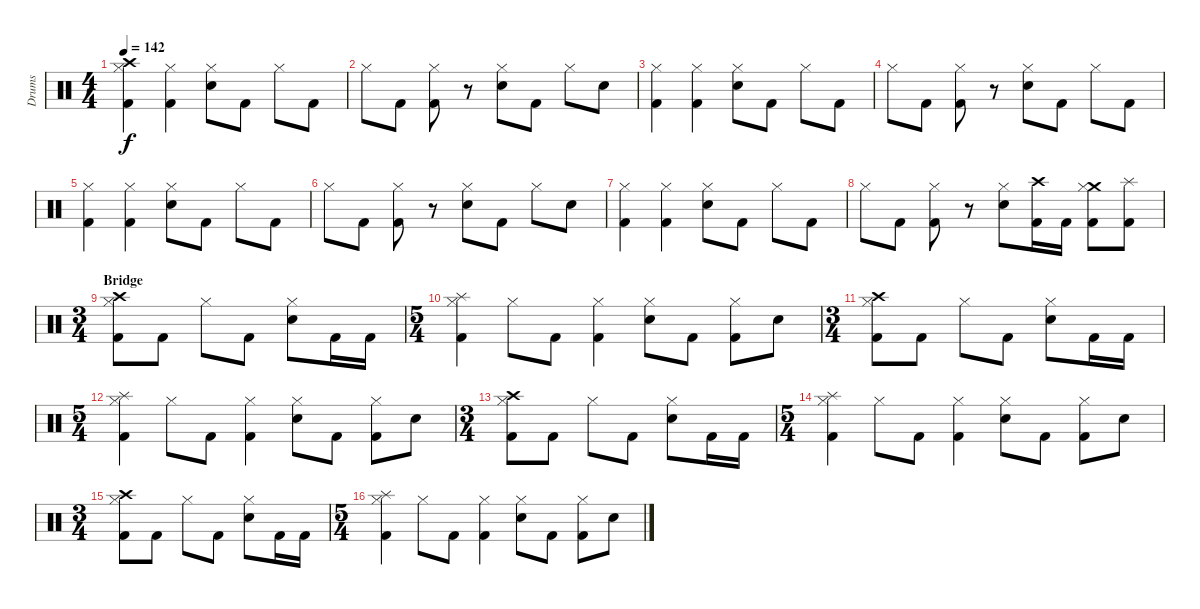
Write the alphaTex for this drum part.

\track ("Drums" "Drums") {instrument percussion}
\staff {score}
\articulation defaults
\ts (4 4)
\tempo 142
\clef neutral
\ks c
("Crash high (hit)" "Hi-Hat (closed)" "Kick (hit) 2").4{dy f} ("Hi-Hat (closed)" "Kick (hit) 2").4 ("Hi-Hat (closed)" "Electric Snare (hit)").8 "Kick (hit) 2".8 "Hi-Hat (closed)".8 "Kick (hit) 2".8 |
"Hi-Hat (closed)".8 "Kick (hit) 2".8 ("Hi-Hat (closed)" "Kick (hit) 2").8 r.8 ("Hi-Hat (closed)" "Electric Snare (hit)").8 "Kick (hit) 2".8 "Hi-Hat (closed)".8 "Electric Snare (hit)".8 |
("Hi-Hat (closed)" "Kick (hit) 2").4 ("Hi-Hat (closed)" "Kick (hit) 2").4 ("Hi-Hat (closed)" "Electric Snare (hit)").8 "Kick (hit) 2".8 "Hi-Hat (closed)".8 "Kick (hit) 2".8 |
"Hi-Hat (closed)".8 "Kick (hit) 2".8 ("Hi-Hat (closed)" "Kick (hit) 2").8 r.8 ("Hi-Hat (closed)" "Electric Snare (hit)").8 "Kick (hit) 2".8 "Hi-Hat (closed)".8 "Kick (hit) 2".8 |
("Hi-Hat (closed)" "Kick (hit) 2").4 ("Hi-Hat (closed)" "Kick (hit) 2").4 ("Hi-Hat (closed)" "Electric Snare (hit)").8 "Kick (hit) 2".8 "Hi-Hat (closed)".8 "Kick (hit) 2".8 |
"Hi-Hat (closed)".8 "Kick (hit) 2".8 ("Hi-Hat (closed)" "Kick (hit) 2").8 r.8 ("Hi-Hat (closed)" "Electric Snare (hit)").8 "Kick (hit) 2".8 "Hi-Hat (closed)".8 "Electric Snare (hit)".8 |
("Hi-Hat (closed)" "Kick (hit) 2").4 ("Hi-Hat (closed)" "Kick (hit) 2").4 ("Hi-Hat (closed)" "Electric Snare (hit)").8 "Kick (hit) 2".8 "Hi-Hat (closed)".8 "Kick (hit) 2".8 |
"Hi-Hat (closed)".8 "Kick (hit) 2".8 ("Hi-Hat (closed)" "Kick (hit) 2").8 r.8 ("Hi-Hat (closed)" "Electric Snare (hit)").8 ("Crash high (hit)" "Kick (hit) 2").16 "Kick (hit) 2".16 ("Crash medium (hit)" "Hi-Hat (closed)" "Kick (hit) 2").8 ("Splash (hit)" "Kick (hit) 2").8 |
\ts (3 4)
\section ("" "Bridge")
("Crash high (hit)" "Hi-Hat (closed)" "Kick (hit) 2").8 "Kick (hit) 2".8 "Hi-Hat (closed)".8 "Kick (hit) 2".8 ("Hi-Hat (closed)" "Electric Snare (hit)").8 "Kick (hit) 2".16 "Kick (hit) 2".16 |
\ts (5 4)
("Splash (hit)" "Hi-Hat (closed)" "Kick (hit) 2").4 "Hi-Hat (closed)".8 "Kick (hit) 2".8 ("Hi-Hat (closed)" "Kick (hit) 2").4 ("Hi-Hat (closed)" "Electric Snare (hit)").8 "Kick (hit) 2".8 ("Hi-Hat (closed)" "Kick (hit) 2").8 "Electric Snare (hit)".8 |
\ts (3 4)
("Crash high (hit)" "Hi-Hat (closed)" "Kick (hit) 2").8 "Kick (hit) 2".8 "Hi-Hat (closed)".8 "Kick (hit) 2".8 ("Hi-Hat (closed)" "Electric Snare (hit)").8 "Kick (hit) 2".16 "Kick (hit) 2".16 |
\ts (5 4)
("Splash (hit)" "Hi-Hat (closed)" "Kick (hit) 2").4 "Hi-Hat (closed)".8 "Kick (hit) 2".8 ("Hi-Hat (closed)" "Kick (hit) 2").4 ("Hi-Hat (closed)" "Electric Snare (hit)").8 "Kick (hit) 2".8 ("Hi-Hat (closed)" "Kick (hit) 2").8 "Electric Snare (hit)".8 |
\ts (3 4)
("Crash high (hit)" "Hi-Hat (closed)" "Kick (hit) 2").8 "Kick (hit) 2".8 "Hi-Hat (closed)".8 "Kick (hit) 2".8 ("Hi-Hat (closed)" "Electric Snare (hit)").8 "Kick (hit) 2".16 "Kick (hit) 2".16 |
\ts (5 4)
("Splash (hit)" "Hi-Hat (closed)" "Kick (hit) 2").4 "Hi-Hat (closed)".8 "Kick (hit) 2".8 ("Hi-Hat (closed)" "Kick (hit) 2").4 ("Hi-Hat (closed)" "Electric Snare (hit)").8 "Kick (hit) 2".8 ("Hi-Hat (closed)" "Kick (hit) 2").8 "Electric Snare (hit)".8 |
\ts (3 4)
("Crash high (hit)" "Hi-Hat (closed)" "Kick (hit) 2").8 "Kick (hit) 2".8 "Hi-Hat (closed)".8 "Kick (hit) 2".8 ("Hi-Hat (closed)" "Electric Snare (hit)").8 "Kick (hit) 2".16 "Kick (hit) 2".16 |
\ts (5 4)
("Splash (hit)" "Hi-Hat (closed)" "Kick (hit) 2").4 "Hi-Hat (closed)".8 "Kick (hit) 2".8 ("Hi-Hat (closed)" "Kick (hit) 2").4 ("Hi-Hat (closed)" "Electric Snare (hit)").8 "Kick (hit) 2".8 ("Hi-Hat (closed)" "Kick (hit) 2").8 "Electric Snare (hit)".8
